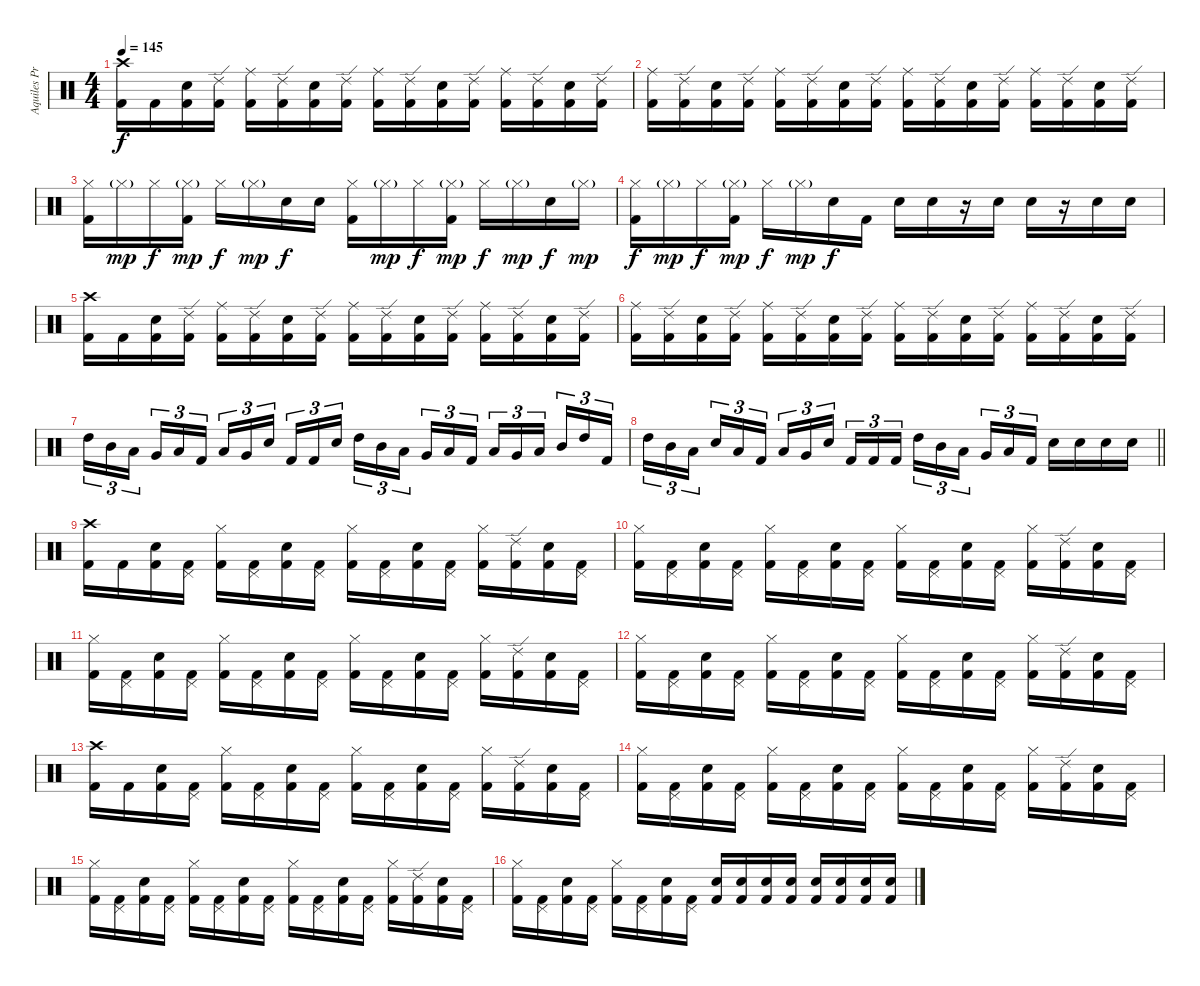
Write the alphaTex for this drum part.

\track ("Aquiles Priester" "Aquiles Pr") {instrument percussion}
\staff {score}
\articulation defaults
\ts (4 4)
\tempo 145
\clef neutral
\ks c
("Crash high (hit)" "Kick (hit) 2").16{dy f} "Kick (hit) 2".16 ("Electric Snare (hit)" "Kick (hit) 2").16 ("Ride (edge) 2" "Kick (hit) 2").16 ("Ride (middle)" "Kick (hit) 2").16 ("Ride (edge) 2" "Kick (hit) 2").16 ("Electric Snare (hit)" "Kick (hit) 2").16 ("Ride (edge) 2" "Kick (hit) 2").16 ("Ride (middle)" "Kick (hit) 2").16 ("Ride (edge) 2" "Kick (hit) 2").16 ("Electric Snare (hit)" "Kick (hit) 2").16 ("Ride (edge) 2" "Kick (hit) 2").16 ("Ride (middle)" "Kick (hit) 2").16 ("Ride (edge) 2" "Kick (hit) 2").16 ("Electric Snare (hit)" "Kick (hit) 2").16 ("Ride (edge) 2" "Kick (hit) 2").16 |
("Ride (middle)" "Kick (hit) 2").16 ("Ride (edge) 2" "Kick (hit) 2").16 ("Electric Snare (hit)" "Kick (hit) 2").16 ("Ride (edge) 2" "Kick (hit) 2").16 ("Ride (middle)" "Kick (hit) 2").16 ("Ride (edge) 2" "Kick (hit) 2").16 ("Electric Snare (hit)" "Kick (hit) 2").16 ("Ride (edge) 2" "Kick (hit) 2").16 ("Ride (middle)" "Kick (hit) 2").16 ("Ride (edge) 2" "Kick (hit) 2").16 ("Electric Snare (hit)" "Kick (hit) 2").16 ("Ride (edge) 2" "Kick (hit) 2").16 ("Ride (middle)" "Kick (hit) 2").16 ("Ride (edge) 2" "Kick (hit) 2").16 ("Electric Snare (hit)" "Kick (hit) 2").16 ("Ride (edge) 2" "Kick (hit) 2").16 |
("Hi-Hat (closed)" "Kick (hit) 2").16 "Hi-Hat (closed)"{g}.16{dy mp} "Hi-Hat (closed)".16{dy f} ("Hi-Hat (closed)"{g} "Kick (hit) 2").16{dy mp} "Hi-Hat (closed)".16{dy f} "Hi-Hat (closed)"{g}.16{dy mp} "Electric Snare (hit)".16{dy f} "Electric Snare (hit)".16 ("Hi-Hat (closed)" "Kick (hit) 2").16 "Hi-Hat (closed)"{g}.16{dy mp} "Hi-Hat (closed)".16{dy f} ("Hi-Hat (closed)"{g} "Kick (hit) 2").16{dy mp} "Hi-Hat (closed)".16{dy f} "Hi-Hat (closed)"{g}.16{dy mp} "Electric Snare (hit)".16{dy f} "Hi-Hat (closed)"{g}.16{dy mp} |
("Hi-Hat (closed)" "Kick (hit) 2").16{dy f} "Hi-Hat (closed)"{g}.16{dy mp} "Hi-Hat (closed)".16{dy f} ("Hi-Hat (closed)"{g} "Kick (hit) 2").16{dy mp} "Hi-Hat (closed)".16{dy f} "Hi-Hat (closed)"{g}.16{dy mp} "Electric Snare (hit)".16{dy f} "Kick (hit) 2".16 "Electric Snare (hit)".16 "Electric Snare (hit)".16 r.16 "Electric Snare (hit)".16 "Electric Snare (hit)".16 r.16 "Electric Snare (hit)".16 "Electric Snare (hit)".16 |
("Crash high (hit)" "Kick (hit) 2").16 "Kick (hit) 2".16 ("Electric Snare (hit)" "Kick (hit) 2").16 ("Ride (edge) 2" "Kick (hit) 2").16 ("Ride (middle)" "Kick (hit) 2").16 ("Ride (edge) 2" "Kick (hit) 2").16 ("Electric Snare (hit)" "Kick (hit) 2").16 ("Ride (edge) 2" "Kick (hit) 2").16 ("Ride (middle)" "Kick (hit) 2").16 ("Ride (edge) 2" "Kick (hit) 2").16 ("Electric Snare (hit)" "Kick (hit) 2").16 ("Ride (edge) 2" "Kick (hit) 2").16 ("Ride (middle)" "Kick (hit) 2").16 ("Ride (edge) 2" "Kick (hit) 2").16 ("Electric Snare (hit)" "Kick (hit) 2").16 ("Ride (edge) 2" "Kick (hit) 2").16 |
("Ride (middle)" "Kick (hit) 2").16 ("Ride (edge) 2" "Kick (hit) 2").16 ("Electric Snare (hit)" "Kick (hit) 2").16 ("Ride (edge) 2" "Kick (hit) 2").16 ("Ride (middle)" "Kick (hit) 2").16 ("Ride (edge) 2" "Kick (hit) 2").16 ("Electric Snare (hit)" "Kick (hit) 2").16 ("Ride (edge) 2" "Kick (hit) 2").16 ("Ride (middle)" "Kick (hit) 2").16 ("Ride (edge) 2" "Kick (hit) 2").16 ("Electric Snare (hit)" "Kick (hit) 2").16 ("Ride (edge) 2" "Kick (hit) 2").16 ("Ride (middle)" "Kick (hit) 2").16 ("Ride (edge) 2" "Kick (hit) 2").16 ("Electric Snare (hit)" "Kick (hit) 2").16 ("Ride (edge) 2" "Kick (hit) 2").16 |
"High Tom (hit)".16{tu (3 2)} "Mid Tom (hit)".16{tu (3 2)} "Low Tom (hit)".16{tu (3 2) beam splitsecondary} "Very Low Tom (hit)".16{tu (3 2)} "Low Floor Tom (hit)".16{tu (3 2)} "Kick (hit) 2".16{tu (3 2)} "Low Floor Tom (hit)".16{tu (3 2)} "Very Low Tom (hit)".16{tu (3 2)} "Electric Snare (hit)".16{tu (3 2) beam splitsecondary} "Kick (hit) 2".16{tu (3 2)} "Kick (hit) 2".16{tu (3 2)} "Electric Snare (hit)".16{tu (3 2)} "High Tom (hit)".16{tu (3 2)} "Mid Tom (hit)".16{tu (3 2)} "Low Tom (hit)".16{tu (3 2) beam splitsecondary} "Very Low Tom (hit)".16{tu (3 2)} "Low Floor Tom (hit)".16{tu (3 2)} "Kick (hit) 2".16{tu (3 2)} "Low Floor Tom (hit)".16{tu (3 2)} "Very Low Tom (hit)".16{tu (3 2)} "Low Tom (hit)".16{tu (3 2) beam splitsecondary} "Mid Tom (hit)".16{tu (3 2)} "High Tom (hit)".16{tu (3 2)} "Kick (hit) 2".16{tu (3 2)} |
\barLineRight lightlight "High Tom (hit)".16{tu (3 2)} "Mid Tom (hit)".16{tu (3 2)} "Low Tom (hit)".16{tu (3 2) beam splitsecondary} "Electric Snare (hit)".16{tu (3 2)} "Low Floor Tom (hit)".16{tu (3 2)} "Kick (hit) 2".16{tu (3 2)} "Low Floor Tom (hit)".16{tu (3 2)} "Very Low Tom (hit)".16{tu (3 2)} "Electric Snare (hit)".16{tu (3 2) beam splitsecondary} "Kick (hit) 2".16{tu (3 2)} "Kick (hit) 2".16{tu (3 2)} "Kick (hit) 2".16{tu (3 2)} "High Tom (hit)".16{tu (3 2)} "Mid Tom (hit)".16{tu (3 2)} "Low Tom (hit)".16{tu (3 2) beam splitsecondary} "Very Low Tom (hit)".16{tu (3 2)} "Low Floor Tom (hit)".16{tu (3 2)} "Kick (hit) 2".16{tu (3 2)} "Electric Snare (hit)".16 "Electric Snare (hit)".16 "Electric Snare (hit)".16 "Electric Snare (hit)".16
|
("Crash high (hit)" "Kick (hit) 2").16 "Kick (hit) 2".16 ("Electric Snare (hit)" "Kick (hit) 2").16 ("Pedal Hi-Hat (hit)" "Kick (hit) 2").16 ("Hi-Hat (closed)" "Kick (hit) 2").16 ("Pedal Hi-Hat (hit)" "Kick (hit) 2").16 ("Electric Snare (hit)" "Kick (hit) 2").16 ("Pedal Hi-Hat (hit)" "Kick (hit) 2").16 ("Hi-Hat (closed)" "Kick (hit) 2").16 ("Pedal Hi-Hat (hit)" "Kick (hit) 2").16 ("Electric Snare (hit)" "Kick (hit) 2").16 ("Pedal Hi-Hat (hit)" "Kick (hit) 2").16 ("Hi-Hat (closed)" "Kick (hit) 2").16 ("Ride (edge) 2" "Kick (hit) 2").16 ("Electric Snare (hit)" "Kick (hit) 2").16 ("Pedal Hi-Hat (hit)" "Kick (hit) 2").16 |
("Hi-Hat (closed)" "Kick (hit) 2").16 ("Pedal Hi-Hat (hit)" "Kick (hit) 2").16 ("Electric Snare (hit)" "Kick (hit) 2").16 ("Pedal Hi-Hat (hit)" "Kick (hit) 2").16 ("Hi-Hat (closed)" "Kick (hit) 2").16 ("Pedal Hi-Hat (hit)" "Kick (hit) 2").16 ("Electric Snare (hit)" "Kick (hit) 2").16 ("Pedal Hi-Hat (hit)" "Kick (hit) 2").16 ("Hi-Hat (closed)" "Kick (hit) 2").16 ("Pedal Hi-Hat (hit)" "Kick (hit) 2").16 ("Electric Snare (hit)" "Kick (hit) 2").16 ("Pedal Hi-Hat (hit)" "Kick (hit) 2").16 ("Hi-Hat (closed)" "Kick (hit) 2").16 ("Ride (edge) 2" "Kick (hit) 2").16 ("Electric Snare (hit)" "Kick (hit) 2").16 ("Pedal Hi-Hat (hit)" "Kick (hit) 2").16 |
("Hi-Hat (closed)" "Kick (hit) 2").16 ("Pedal Hi-Hat (hit)" "Kick (hit) 2").16 ("Electric Snare (hit)" "Kick (hit) 2").16 ("Pedal Hi-Hat (hit)" "Kick (hit) 2").16 ("Hi-Hat (closed)" "Kick (hit) 2").16 ("Pedal Hi-Hat (hit)" "Kick (hit) 2").16 ("Electric Snare (hit)" "Kick (hit) 2").16 ("Pedal Hi-Hat (hit)" "Kick (hit) 2").16 ("Hi-Hat (closed)" "Kick (hit) 2").16 ("Pedal Hi-Hat (hit)" "Kick (hit) 2").16 ("Electric Snare (hit)" "Kick (hit) 2").16 ("Pedal Hi-Hat (hit)" "Kick (hit) 2").16 ("Hi-Hat (closed)" "Kick (hit) 2").16 ("Ride (edge) 2" "Kick (hit) 2").16 ("Electric Snare (hit)" "Kick (hit) 2").16 ("Pedal Hi-Hat (hit)" "Kick (hit) 2").16 |
("Hi-Hat (closed)" "Kick (hit) 2").16 ("Pedal Hi-Hat (hit)" "Kick (hit) 2").16 ("Electric Snare (hit)" "Kick (hit) 2").16 ("Pedal Hi-Hat (hit)" "Kick (hit) 2").16 ("Hi-Hat (closed)" "Kick (hit) 2").16 ("Pedal Hi-Hat (hit)" "Kick (hit) 2").16 ("Electric Snare (hit)" "Kick (hit) 2").16 ("Pedal Hi-Hat (hit)" "Kick (hit) 2").16 ("Hi-Hat (closed)" "Kick (hit) 2").16 ("Pedal Hi-Hat (hit)" "Kick (hit) 2").16 ("Electric Snare (hit)" "Kick (hit) 2").16 ("Pedal Hi-Hat (hit)" "Kick (hit) 2").16 ("Hi-Hat (closed)" "Kick (hit) 2").16 ("Ride (edge) 2" "Kick (hit) 2").16 ("Electric Snare (hit)" "Kick (hit) 2").16 ("Pedal Hi-Hat (hit)" "Kick (hit) 2").16 |
("Crash high (hit)" "Kick (hit) 2").16 "Kick (hit) 2".16 ("Electric Snare (hit)" "Kick (hit) 2").16 ("Pedal Hi-Hat (hit)" "Kick (hit) 2").16 ("Hi-Hat (closed)" "Kick (hit) 2").16 ("Pedal Hi-Hat (hit)" "Kick (hit) 2").16 ("Electric Snare (hit)" "Kick (hit) 2").16 ("Pedal Hi-Hat (hit)" "Kick (hit) 2").16 ("Hi-Hat (closed)" "Kick (hit) 2").16 ("Pedal Hi-Hat (hit)" "Kick (hit) 2").16 ("Electric Snare (hit)" "Kick (hit) 2").16 ("Pedal Hi-Hat (hit)" "Kick (hit) 2").16 ("Hi-Hat (closed)" "Kick (hit) 2").16 ("Ride (edge) 2" "Kick (hit) 2").16 ("Electric Snare (hit)" "Kick (hit) 2").16 ("Pedal Hi-Hat (hit)" "Kick (hit) 2").16 |
("Hi-Hat (closed)" "Kick (hit) 2").16 ("Pedal Hi-Hat (hit)" "Kick (hit) 2").16 ("Electric Snare (hit)" "Kick (hit) 2").16 ("Pedal Hi-Hat (hit)" "Kick (hit) 2").16 ("Hi-Hat (closed)" "Kick (hit) 2").16 ("Pedal Hi-Hat (hit)" "Kick (hit) 2").16 ("Electric Snare (hit)" "Kick (hit) 2").16 ("Pedal Hi-Hat (hit)" "Kick (hit) 2").16 ("Hi-Hat (closed)" "Kick (hit) 2").16 ("Pedal Hi-Hat (hit)" "Kick (hit) 2").16 ("Electric Snare (hit)" "Kick (hit) 2").16 ("Pedal Hi-Hat (hit)" "Kick (hit) 2").16 ("Hi-Hat (closed)" "Kick (hit) 2").16 ("Ride (edge) 2" "Kick (hit) 2").16 ("Electric Snare (hit)" "Kick (hit) 2").16 ("Pedal Hi-Hat (hit)" "Kick (hit) 2").16 |
("Hi-Hat (closed)" "Kick (hit) 2").16 ("Pedal Hi-Hat (hit)" "Kick (hit) 2").16 ("Electric Snare (hit)" "Kick (hit) 2").16 ("Pedal Hi-Hat (hit)" "Kick (hit) 2").16 ("Hi-Hat (closed)" "Kick (hit) 2").16 ("Pedal Hi-Hat (hit)" "Kick (hit) 2").16 ("Electric Snare (hit)" "Kick (hit) 2").16 ("Pedal Hi-Hat (hit)" "Kick (hit) 2").16 ("Hi-Hat (closed)" "Kick (hit) 2").16 ("Pedal Hi-Hat (hit)" "Kick (hit) 2").16 ("Electric Snare (hit)" "Kick (hit) 2").16 ("Pedal Hi-Hat (hit)" "Kick (hit) 2").16 ("Hi-Hat (closed)" "Kick (hit) 2").16 ("Ride (edge) 2" "Kick (hit) 2").16 ("Electric Snare (hit)" "Kick (hit) 2").16 ("Pedal Hi-Hat (hit)" "Kick (hit) 2").16 |
("Hi-Hat (closed)" "Kick (hit) 2").16 ("Pedal Hi-Hat (hit)" "Kick (hit) 2").16 ("Electric Snare (hit)" "Kick (hit) 2").16 ("Pedal Hi-Hat (hit)" "Kick (hit) 2").16 ("Hi-Hat (closed)" "Kick (hit) 2").16 ("Pedal Hi-Hat (hit)" "Kick (hit) 2").16 ("Electric Snare (hit)" "Kick (hit) 2").16 ("Pedal Hi-Hat (hit)" "Kick (hit) 2").16 ("Electric Snare (hit)" "Kick (hit) 2").16 ("Electric Snare (hit)" "Kick (hit) 2").16 ("Electric Snare (hit)" "Kick (hit) 2").16 ("Electric Snare (hit)" "Kick (hit) 2").16 ("Electric Snare (hit)" "Kick (hit) 2").16 ("Electric Snare (hit)" "Kick (hit) 2").16 ("Electric Snare (hit)" "Kick (hit) 2").16 ("Electric Snare (hit)" "Kick (hit) 2").16
